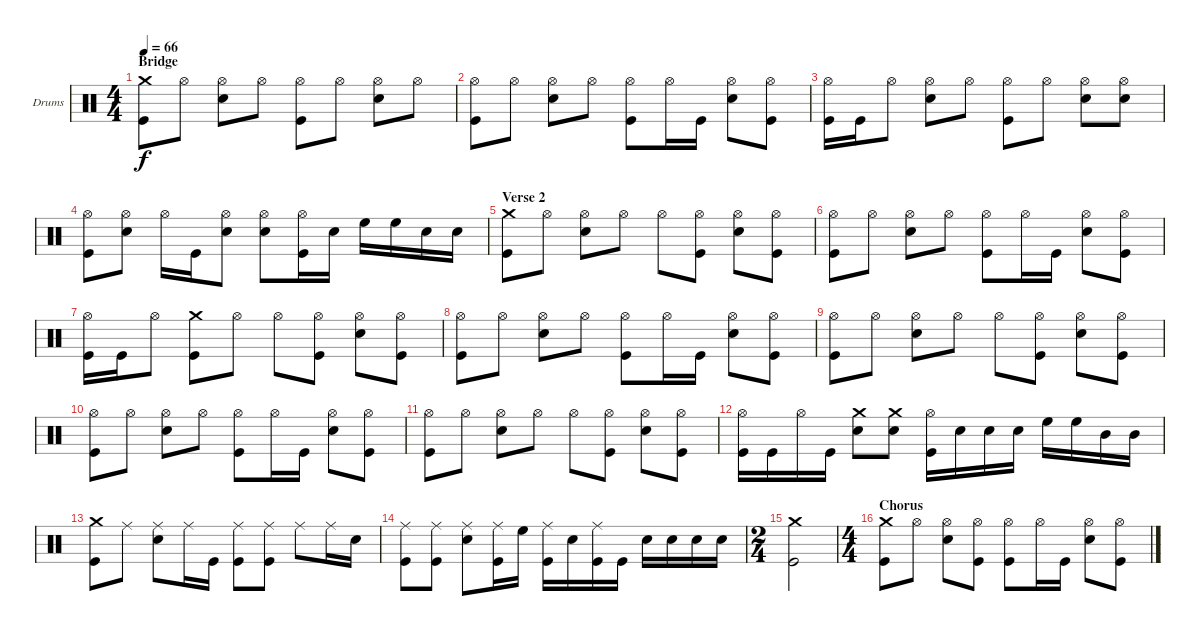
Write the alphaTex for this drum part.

\bracketExtendMode groupsimilarinstruments
\firstSystemTrackNameOrientation horizontal
\otherSystemsTrackNameOrientation horizontal
\track ("Drumkit" "Drums") {instrument percussion}
\staff {score}
\articulation defaults
\ts (4 4)
\section ("" "Bridge")
\tempo 66
\clef neutral
\ks c
("Crash medium (hit)" "Kick (hit)").8{dy f} "Hi-Hat (open)".8 ("Hi-Hat (open)" "Snare (hit) 2").8 "Hi-Hat (open)".8 ("Hi-Hat (open)" "Kick (hit)").8 "Hi-Hat (open)".8 ("Hi-Hat (open)" "Snare (hit) 2").8 "Hi-Hat (open)".8 |
("Hi-Hat (open)" "Kick (hit)").8 "Hi-Hat (open)".8 ("Hi-Hat (open)" "Snare (hit) 2").8 "Hi-Hat (open)".8 ("Hi-Hat (open)" "Kick (hit)").8 "Hi-Hat (open)".16 "Kick (hit)".16 ("Hi-Hat (open)" "Snare (hit) 2").8 ("Hi-Hat (open)" "Kick (hit)").8 |
("Hi-Hat (open)" "Kick (hit)").16 "Kick (hit)".16 "Hi-Hat (open)".8 ("Hi-Hat (open)" "Snare (hit) 2").8 "Hi-Hat (open)".8 ("Hi-Hat (open)" "Kick (hit)").8 "Hi-Hat (open)".8 ("Hi-Hat (open)" "Snare (hit) 2").8 ("Hi-Hat (open)" "Snare (hit) 2").8 |
("Hi-Hat (open)" "Kick (hit)").8 ("Hi-Hat (open)" "Snare (hit) 2").8 "Hi-Hat (open)".16 "Kick (hit)".16 ("Hi-Hat (open)" "Snare (hit) 2").8 ("Hi-Hat (open)" "Snare (hit) 2").8 ("Hi-Hat (open)" "Kick (hit)").16 "Snare (hit) 2".16 "High Floor Tom (hit)".16 "High Floor Tom (hit)".16 "Snare (hit) 2".16 "Snare (hit) 2".16 |
\section ("" "Verse 2")
("Crash medium (hit)" "Kick (hit)").8 "Hi-Hat (open)".8 ("Hi-Hat (open)" "Snare (hit) 2").8 "Hi-Hat (open)".8 "Hi-Hat (open)".8 ("Hi-Hat (open)" "Kick (hit)").8 ("Hi-Hat (open)" "Snare (hit) 2").8 ("Hi-Hat (open)" "Kick (hit)").8 |
("Hi-Hat (open)" "Kick (hit)").8 "Hi-Hat (open)".8 ("Hi-Hat (open)" "Snare (hit) 2").8 "Hi-Hat (open)".8 ("Hi-Hat (open)" "Kick (hit)").8 "Hi-Hat (open)".16 "Kick (hit)".16 ("Hi-Hat (open)" "Snare (hit) 2").8 ("Hi-Hat (open)" "Kick (hit)").8 |
("Hi-Hat (open)" "Kick (hit)").16 "Kick (hit)".16 "Hi-Hat (open)".8 ("Crash medium (hit)" "Kick (hit)").8 "Hi-Hat (open)".8 "Hi-Hat (open)".8 ("Hi-Hat (open)" "Kick (hit)").8 ("Hi-Hat (open)" "Snare (hit) 2").8 ("Hi-Hat (open)" "Kick (hit)").8 |
("Hi-Hat (open)" "Kick (hit)").8 "Hi-Hat (open)".8 ("Hi-Hat (open)" "Snare (hit) 2").8 "Hi-Hat (open)".8 ("Hi-Hat (open)" "Kick (hit)").8 "Hi-Hat (open)".16 "Kick (hit)".16 ("Hi-Hat (open)" "Snare (hit) 2").8 ("Hi-Hat (open)" "Kick (hit)").8 |
("Hi-Hat (open)" "Kick (hit)").8 "Hi-Hat (open)".8 ("Hi-Hat (open)" "Snare (hit) 2").8 "Hi-Hat (open)".8 "Hi-Hat (open)".8 ("Hi-Hat (open)" "Kick (hit)").8 ("Hi-Hat (open)" "Snare (hit) 2").8 ("Hi-Hat (open)" "Kick (hit)").8 |
("Hi-Hat (open)" "Kick (hit)").8 "Hi-Hat (open)".8 ("Hi-Hat (open)" "Snare (hit) 2").8 "Hi-Hat (open)".8 ("Hi-Hat (open)" "Kick (hit)").8 "Hi-Hat (open)".16 "Kick (hit)".16 ("Hi-Hat (open)" "Snare (hit) 2").8 ("Hi-Hat (open)" "Kick (hit)").8 |
("Hi-Hat (open)" "Kick (hit)").8 "Hi-Hat (open)".8 ("Hi-Hat (open)" "Snare (hit) 2").8 "Hi-Hat (open)".8 "Hi-Hat (open)".8 ("Hi-Hat (open)" "Kick (hit)").8 ("Hi-Hat (open)" "Snare (hit) 2").8 ("Hi-Hat (open)" "Kick (hit)").8 |
("Hi-Hat (open)" "Kick (hit)").16 "Kick (hit)".16 "Hi-Hat (open)".16 "Kick (hit)".16 ("Crash medium (hit)" "Snare (hit) 2").8 ("Crash medium (hit)" "Snare (hit) 2").8 ("Hi-Hat (open)" "Kick (hit)").16 "Snare (hit) 2".16 "Snare (hit) 2".16 "Snare (hit) 2".16 "High Floor Tom (hit)".16 "High Floor Tom (hit)".16 "Mid Tom (hit)".16 "Mid Tom (hit)".16 |
("Crash medium (hit)" "Kick (hit)").8 "Ride (middle)".8 ("Ride (middle)" "Snare (hit) 2").8 "Ride (middle)".16 "Kick (hit)".16 ("Ride (middle)" "Kick (hit)").8 ("Ride (middle)" "Kick (hit)").8 "Ride (middle)".8 "Ride (middle)".16 "Snare (hit) 2".16 |
("Ride (middle)" "Kick (hit)").8 ("Ride (middle)" "Kick (hit)").8 ("Ride (middle)" "Snare (hit) 2").8 ("Ride (middle)" "Kick (hit)").16 "High Floor Tom (hit)".16 ("Ride (middle)" "Kick (hit)").16 "Snare (hit) 2".16 ("Ride (middle)" "Kick (hit)").16 "Kick (hit)".16 "Snare (hit) 2".16 "Snare (hit) 2".16 "Snare (hit) 2".16 "Snare (hit) 2".16 |
\ts (2 4)
("Crash medium (hit)" "Kick (hit)").2 |
\ts (4 4)
\section ("" "Chorus")
("Crash medium (hit)" "Kick (hit)").8 "Hi-Hat (open)".8 ("Hi-Hat (open)" "Snare (hit) 2").8 ("Hi-Hat (open)" "Kick (hit)").8 ("Hi-Hat (open)" "Kick (hit)").8 "Hi-Hat (open)".16 "Kick (hit)".16 ("Hi-Hat (open)" "Snare (hit) 2").8 ("Hi-Hat (open)" "Kick (hit)").8
